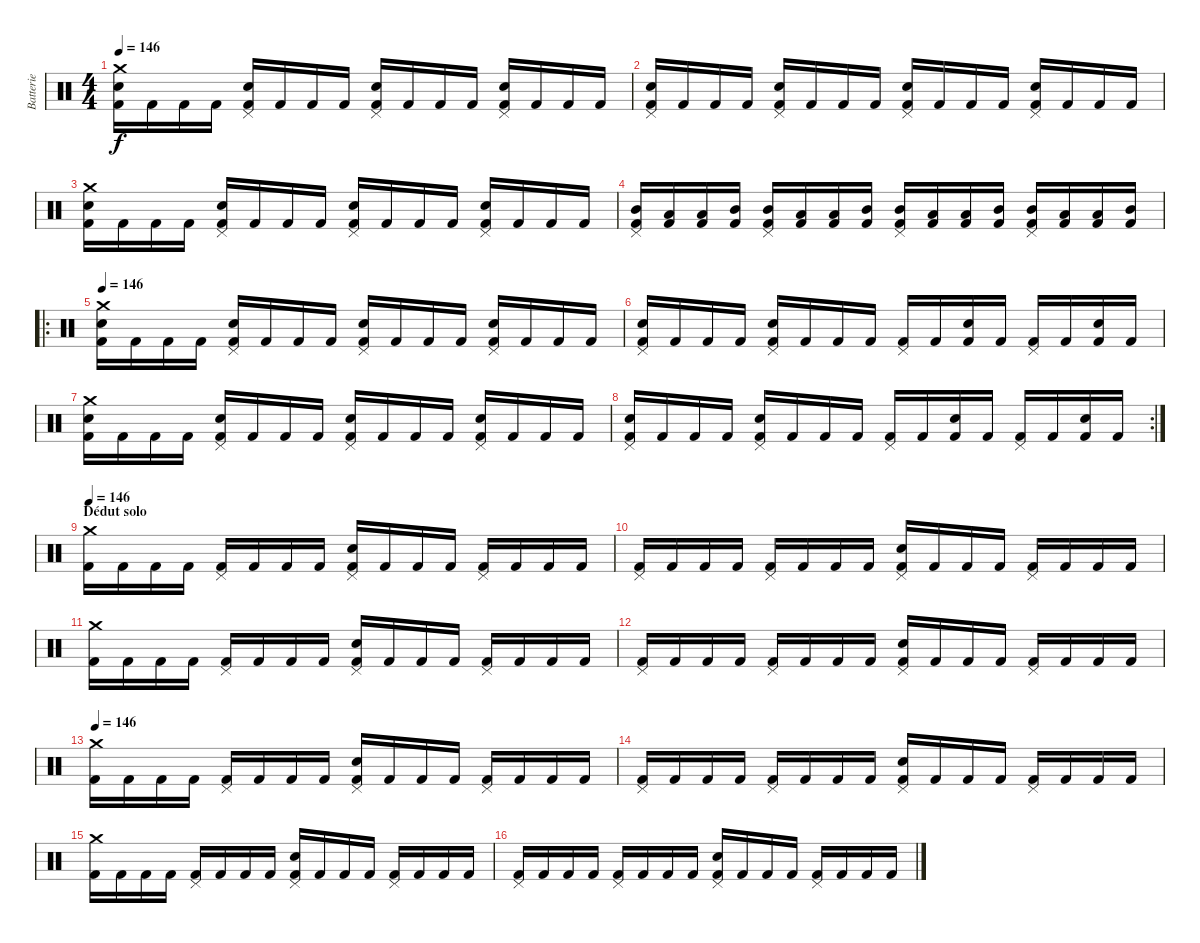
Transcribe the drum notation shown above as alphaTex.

\track ("Batterie" "Batterie") {instrument percussion}
\staff {score}
\articulation defaults
\ts (4 4)
\tempo 146
\clef neutral
\ks c
("Crash medium (hit)" "Electric Snare (hit)" "Kick (hit) 2").16{dy f} "Kick (hit) 2".16 "Kick (hit) 2".16 "Kick (hit) 2".16 ("Pedal Hi-Hat (hit)" "Electric Snare (hit)" "Kick (hit) 2").16 "Kick (hit) 2".16 "Kick (hit) 2".16 "Kick (hit) 2".16 ("Pedal Hi-Hat (hit)" "Electric Snare (hit)" "Kick (hit) 2").16 "Kick (hit) 2".16 "Kick (hit) 2".16 "Kick (hit) 2".16 ("Pedal Hi-Hat (hit)" "Electric Snare (hit)" "Kick (hit) 2").16 "Kick (hit) 2".16 "Kick (hit) 2".16 "Kick (hit) 2".16 |
("Pedal Hi-Hat (hit)" "Electric Snare (hit)" "Kick (hit) 2").16 "Kick (hit) 2".16 "Kick (hit) 2".16 "Kick (hit) 2".16 ("Pedal Hi-Hat (hit)" "Electric Snare (hit)" "Kick (hit) 2").16 "Kick (hit) 2".16 "Kick (hit) 2".16 "Kick (hit) 2".16 ("Pedal Hi-Hat (hit)" "Electric Snare (hit)" "Kick (hit) 2").16 "Kick (hit) 2".16 "Kick (hit) 2".16 "Kick (hit) 2".16 ("Pedal Hi-Hat (hit)" "Electric Snare (hit)" "Kick (hit) 2").16 "Kick (hit) 2".16 "Kick (hit) 2".16 "Kick (hit) 2".16 |
("Crash medium (hit)" "Electric Snare (hit)" "Kick (hit) 2").16 "Kick (hit) 2".16 "Kick (hit) 2".16 "Kick (hit) 2".16 ("Pedal Hi-Hat (hit)" "Electric Snare (hit)" "Kick (hit) 2").16 "Kick (hit) 2".16 "Kick (hit) 2".16 "Kick (hit) 2".16 ("Pedal Hi-Hat (hit)" "Electric Snare (hit)" "Kick (hit) 2").16 "Kick (hit) 2".16 "Kick (hit) 2".16 "Kick (hit) 2".16 ("Pedal Hi-Hat (hit)" "Electric Snare (hit)" "Kick (hit) 2").16 "Kick (hit) 2".16 "Kick (hit) 2".16 "Kick (hit) 2".16 |
("Pedal Hi-Hat (hit)" "Mid Tom (hit)" "Kick (hit) 2").16 ("Low Tom (hit)" "Kick (hit) 2").16 ("Low Tom (hit)" "Kick (hit) 2").16 ("Mid Tom (hit)" "Kick (hit) 2").16 ("Pedal Hi-Hat (hit)" "Mid Tom (hit)" "Kick (hit) 2").16 ("Low Tom (hit)" "Kick (hit) 2").16 ("Low Tom (hit)" "Kick (hit) 2").16 ("Mid Tom (hit)" "Kick (hit) 2").16 ("Pedal Hi-Hat (hit)" "Mid Tom (hit)" "Kick (hit) 2").16 ("Low Tom (hit)" "Kick (hit) 2").16 ("Low Tom (hit)" "Kick (hit) 2").16 ("Mid Tom (hit)" "Kick (hit) 2").16 ("Pedal Hi-Hat (hit)" "Mid Tom (hit)" "Kick (hit) 2").16 ("Low Tom (hit)" "Kick (hit) 2").16 ("Low Tom (hit)" "Kick (hit) 2").16 ("Mid Tom (hit)" "Kick (hit) 2").16 |
\ro
\tempo 146
("Crash medium (hit)" "Electric Snare (hit)" "Kick (hit) 2").16 "Kick (hit) 2".16 "Kick (hit) 2".16 "Kick (hit) 2".16 ("Pedal Hi-Hat (hit)" "Electric Snare (hit)" "Kick (hit) 2").16 "Kick (hit) 2".16 "Kick (hit) 2".16 "Kick (hit) 2".16 ("Pedal Hi-Hat (hit)" "Electric Snare (hit)" "Kick (hit) 2").16 "Kick (hit) 2".16 "Kick (hit) 2".16 "Kick (hit) 2".16 ("Pedal Hi-Hat (hit)" "Electric Snare (hit)" "Kick (hit) 2").16 "Kick (hit) 2".16 "Kick (hit) 2".16 "Kick (hit) 2".16 |
("Pedal Hi-Hat (hit)" "Electric Snare (hit)" "Kick (hit) 2").16 "Kick (hit) 2".16 "Kick (hit) 2".16 "Kick (hit) 2".16 ("Pedal Hi-Hat (hit)" "Electric Snare (hit)" "Kick (hit) 2").16 "Kick (hit) 2".16 "Kick (hit) 2".16 "Kick (hit) 2".16 ("Pedal Hi-Hat (hit)" "Kick (hit) 2").16 "Kick (hit) 2".16 ("Electric Snare (hit)" "Kick (hit) 2").16 "Kick (hit) 2".16 ("Pedal Hi-Hat (hit)" "Kick (hit) 2").16 "Kick (hit) 2".16 ("Electric Snare (hit)" "Kick (hit) 2").16 "Kick (hit) 2".16 |
("Crash medium (hit)" "Electric Snare (hit)" "Kick (hit) 2").16 "Kick (hit) 2".16 "Kick (hit) 2".16 "Kick (hit) 2".16 ("Pedal Hi-Hat (hit)" "Electric Snare (hit)" "Kick (hit) 2").16 "Kick (hit) 2".16 "Kick (hit) 2".16 "Kick (hit) 2".16 ("Pedal Hi-Hat (hit)" "Electric Snare (hit)" "Kick (hit) 2").16 "Kick (hit) 2".16 "Kick (hit) 2".16 "Kick (hit) 2".16 ("Pedal Hi-Hat (hit)" "Electric Snare (hit)" "Kick (hit) 2").16 "Kick (hit) 2".16 "Kick (hit) 2".16 "Kick (hit) 2".16 |
\rc 2
("Pedal Hi-Hat (hit)" "Electric Snare (hit)" "Kick (hit) 2").16 "Kick (hit) 2".16 "Kick (hit) 2".16 "Kick (hit) 2".16 ("Pedal Hi-Hat (hit)" "Electric Snare (hit)" "Kick (hit) 2").16 "Kick (hit) 2".16 "Kick (hit) 2".16 "Kick (hit) 2".16 ("Pedal Hi-Hat (hit)" "Kick (hit) 2").16 "Kick (hit) 2".16 ("Electric Snare (hit)" "Kick (hit) 2").16 "Kick (hit) 2".16 ("Pedal Hi-Hat (hit)" "Kick (hit) 2").16 "Kick (hit) 2".16 ("Electric Snare (hit)" "Kick (hit) 2").16 "Kick (hit) 2".16 |
\section ("" "Dédut solo")
\tempo 136
\tempo 146
("Crash medium (hit)" "Kick (hit) 2").16 "Kick (hit) 2".16 "Kick (hit) 2".16 "Kick (hit) 2".16 ("Pedal Hi-Hat (hit)" "Kick (hit) 2").16 "Kick (hit) 2".16 "Kick (hit) 2".16 "Kick (hit) 2".16 ("Pedal Hi-Hat (hit)" "Electric Snare (hit)" "Kick (hit) 2").16 "Kick (hit) 2".16 "Kick (hit) 2".16 "Kick (hit) 2".16 ("Pedal Hi-Hat (hit)" "Kick (hit) 2").16 "Kick (hit) 2".16 "Kick (hit) 2".16 "Kick (hit) 2".16 |
("Pedal Hi-Hat (hit)" "Kick (hit) 2").16 "Kick (hit) 2".16 "Kick (hit) 2".16 "Kick (hit) 2".16 ("Pedal Hi-Hat (hit)" "Kick (hit) 2").16 "Kick (hit) 2".16 "Kick (hit) 2".16 "Kick (hit) 2".16 ("Pedal Hi-Hat (hit)" "Electric Snare (hit)" "Kick (hit) 2").16 "Kick (hit) 2".16 "Kick (hit) 2".16 "Kick (hit) 2".16 ("Pedal Hi-Hat (hit)" "Kick (hit) 2").16 "Kick (hit) 2".16 "Kick (hit) 2".16 "Kick (hit) 2".16 |
("Crash medium (hit)" "Kick (hit) 2").16 "Kick (hit) 2".16 "Kick (hit) 2".16 "Kick (hit) 2".16 ("Pedal Hi-Hat (hit)" "Kick (hit) 2").16 "Kick (hit) 2".16 "Kick (hit) 2".16 "Kick (hit) 2".16 ("Pedal Hi-Hat (hit)" "Electric Snare (hit)" "Kick (hit) 2").16 "Kick (hit) 2".16 "Kick (hit) 2".16 "Kick (hit) 2".16 ("Pedal Hi-Hat (hit)" "Kick (hit) 2").16 "Kick (hit) 2".16 "Kick (hit) 2".16 "Kick (hit) 2".16 |
("Pedal Hi-Hat (hit)" "Kick (hit) 2").16 "Kick (hit) 2".16 "Kick (hit) 2".16 "Kick (hit) 2".16 ("Pedal Hi-Hat (hit)" "Kick (hit) 2").16 "Kick (hit) 2".16 "Kick (hit) 2".16 "Kick (hit) 2".16 ("Pedal Hi-Hat (hit)" "Electric Snare (hit)" "Kick (hit) 2").16 "Kick (hit) 2".16 "Kick (hit) 2".16 "Kick (hit) 2".16 ("Pedal Hi-Hat (hit)" "Kick (hit) 2").16 "Kick (hit) 2".16 "Kick (hit) 2".16 "Kick (hit) 2".16 |
\tempo 146
("Crash medium (hit)" "Kick (hit) 2").16 "Kick (hit) 2".16 "Kick (hit) 2".16 "Kick (hit) 2".16 ("Pedal Hi-Hat (hit)" "Kick (hit) 2").16 "Kick (hit) 2".16 "Kick (hit) 2".16 "Kick (hit) 2".16 ("Pedal Hi-Hat (hit)" "Electric Snare (hit)" "Kick (hit) 2").16 "Kick (hit) 2".16 "Kick (hit) 2".16 "Kick (hit) 2".16 ("Pedal Hi-Hat (hit)" "Kick (hit) 2").16 "Kick (hit) 2".16 "Kick (hit) 2".16 "Kick (hit) 2".16 |
("Pedal Hi-Hat (hit)" "Kick (hit) 2").16 "Kick (hit) 2".16 "Kick (hit) 2".16 "Kick (hit) 2".16 ("Pedal Hi-Hat (hit)" "Kick (hit) 2").16 "Kick (hit) 2".16 "Kick (hit) 2".16 "Kick (hit) 2".16 ("Pedal Hi-Hat (hit)" "Electric Snare (hit)" "Kick (hit) 2").16 "Kick (hit) 2".16 "Kick (hit) 2".16 "Kick (hit) 2".16 ("Pedal Hi-Hat (hit)" "Kick (hit) 2").16 "Kick (hit) 2".16 "Kick (hit) 2".16 "Kick (hit) 2".16 |
("Crash medium (hit)" "Kick (hit) 2").16 "Kick (hit) 2".16 "Kick (hit) 2".16 "Kick (hit) 2".16 ("Pedal Hi-Hat (hit)" "Kick (hit) 2").16 "Kick (hit) 2".16 "Kick (hit) 2".16 "Kick (hit) 2".16 ("Pedal Hi-Hat (hit)" "Electric Snare (hit)" "Kick (hit) 2").16 "Kick (hit) 2".16 "Kick (hit) 2".16 "Kick (hit) 2".16 ("Pedal Hi-Hat (hit)" "Kick (hit) 2").16 "Kick (hit) 2".16 "Kick (hit) 2".16 "Kick (hit) 2".16 |
("Pedal Hi-Hat (hit)" "Kick (hit) 2").16 "Kick (hit) 2".16 "Kick (hit) 2".16 "Kick (hit) 2".16 ("Pedal Hi-Hat (hit)" "Kick (hit) 2").16 "Kick (hit) 2".16 "Kick (hit) 2".16 "Kick (hit) 2".16 ("Pedal Hi-Hat (hit)" "Electric Snare (hit)" "Kick (hit) 2").16 "Kick (hit) 2".16 "Kick (hit) 2".16 "Kick (hit) 2".16 ("Pedal Hi-Hat (hit)" "Kick (hit) 2").16 "Kick (hit) 2".16 "Kick (hit) 2".16 "Kick (hit) 2".16
